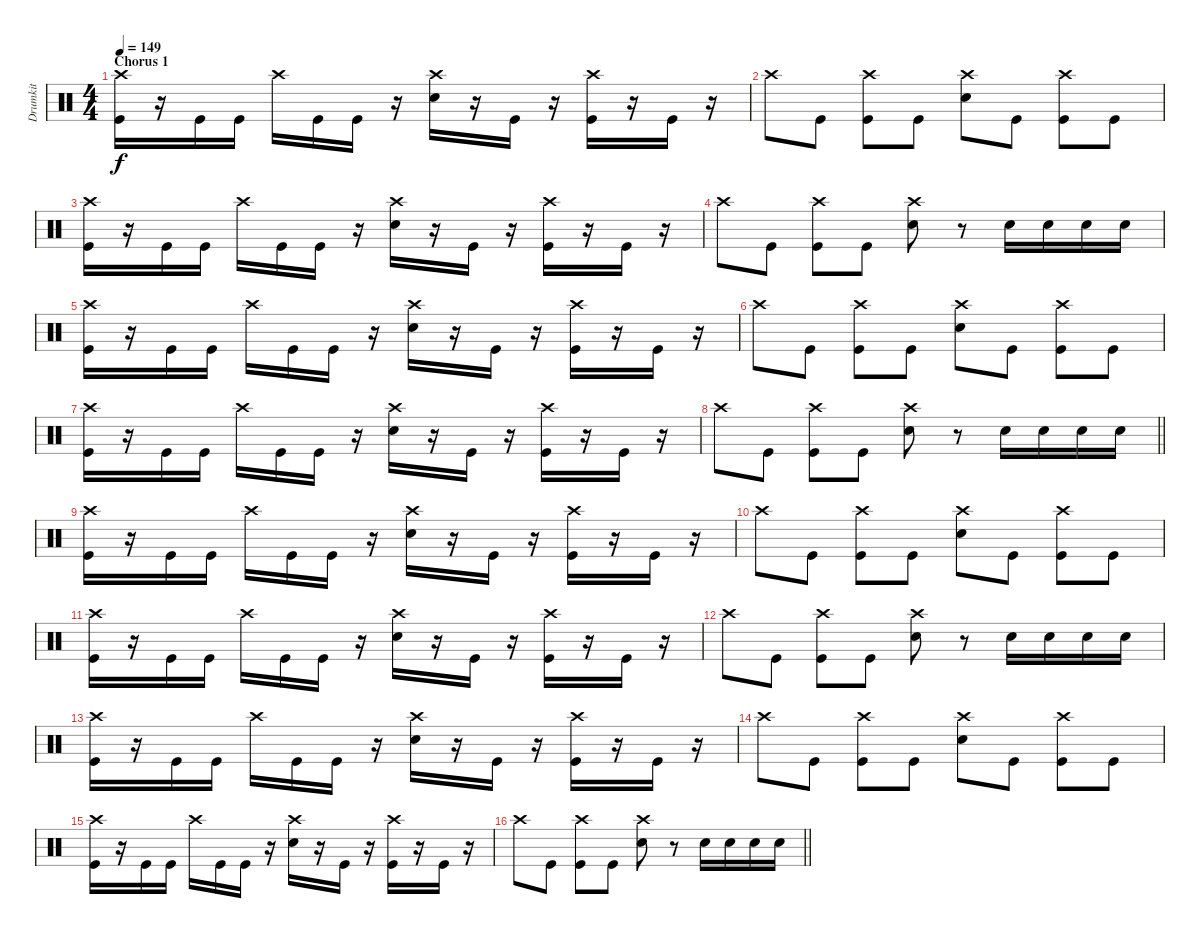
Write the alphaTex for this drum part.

\track ("Drumkit" "Drumkit") {instrument percussion}
\staff {score}
\articulation defaults
\ts (4 4)
\section ("" "Chorus 1")
\tempo 149
\clef neutral
\ks c
("Crash high (hit)" "Kick (hit)").16{dy f} r.16 "Kick (hit)".16 "Kick (hit)".16 "Crash high (hit)".16 "Kick (hit)".16 "Kick (hit)".16 r.16 ("Crash high (hit)" "Snare (hit) 2").16 r.16 "Kick (hit)".16 r.16 ("Crash high (hit)" "Kick (hit)").16 r.16 "Kick (hit)".16 r.16 |
"Crash high (hit)".8 "Kick (hit)".8 ("Crash high (hit)" "Kick (hit)").8 "Kick (hit)".8 ("Crash high (hit)" "Snare (hit) 2").8 "Kick (hit)".8 ("Crash high (hit)" "Kick (hit)").8 "Kick (hit)".8 |
("Crash high (hit)" "Kick (hit)").16 r.16 "Kick (hit)".16 "Kick (hit)".16 "Crash high (hit)".16 "Kick (hit)".16 "Kick (hit)".16 r.16 ("Crash high (hit)" "Snare (hit) 2").16 r.16 "Kick (hit)".16 r.16 ("Crash high (hit)" "Kick (hit)").16 r.16 "Kick (hit)".16 r.16 |
"Crash high (hit)".8 "Kick (hit)".8 ("Crash high (hit)" "Kick (hit)").8 "Kick (hit)".8 ("Crash high (hit)" "Snare (hit) 2").8 r.8 "Snare (hit) 2".16 "Snare (hit) 2".16 "Snare (hit) 2".16 "Snare (hit) 2".16 |
("Crash high (hit)" "Kick (hit)").16 r.16 "Kick (hit)".16 "Kick (hit)".16 "Crash high (hit)".16 "Kick (hit)".16 "Kick (hit)".16 r.16 ("Crash high (hit)" "Snare (hit) 2").16 r.16 "Kick (hit)".16 r.16 ("Crash high (hit)" "Kick (hit)").16 r.16 "Kick (hit)".16 r.16 |
"Crash high (hit)".8 "Kick (hit)".8 ("Crash high (hit)" "Kick (hit)").8 "Kick (hit)".8 ("Crash high (hit)" "Snare (hit) 2").8 "Kick (hit)".8 ("Crash high (hit)" "Kick (hit)").8 "Kick (hit)".8 |
("Crash high (hit)" "Kick (hit)").16 r.16 "Kick (hit)".16 "Kick (hit)".16 "Crash high (hit)".16 "Kick (hit)".16 "Kick (hit)".16 r.16 ("Crash high (hit)" "Snare (hit) 2").16 r.16 "Kick (hit)".16 r.16 ("Crash high (hit)" "Kick (hit)").16 r.16 "Kick (hit)".16 r.16 |
\barLineRight lightlight "Crash high (hit)".8 "Kick (hit)".8
("Crash high (hit)" "Kick (hit)").8 "Kick (hit)".8 ("Crash high (hit)" "Snare (hit) 2").8 r.8 "Snare (hit) 2".16 "Snare (hit) 2".16 "Snare (hit) 2".16 "Snare (hit) 2".16 |
("Crash high (hit)" "Kick (hit)").16 r.16 "Kick (hit)".16 "Kick (hit)".16 "Crash high (hit)".16 "Kick (hit)".16 "Kick (hit)".16 r.16 ("Crash high (hit)" "Snare (hit) 2").16 r.16 "Kick (hit)".16 r.16 ("Crash high (hit)" "Kick (hit)").16 r.16 "Kick (hit)".16 r.16 |
"Crash high (hit)".8 "Kick (hit)".8 ("Crash high (hit)" "Kick (hit)").8 "Kick (hit)".8 ("Crash high (hit)" "Snare (hit) 2").8 "Kick (hit)".8 ("Crash high (hit)" "Kick (hit)").8 "Kick (hit)".8 |
("Crash high (hit)" "Kick (hit)").16 r.16 "Kick (hit)".16 "Kick (hit)".16 "Crash high (hit)".16 "Kick (hit)".16 "Kick (hit)".16 r.16 ("Crash high (hit)" "Snare (hit) 2").16 r.16 "Kick (hit)".16 r.16 ("Crash high (hit)" "Kick (hit)").16 r.16 "Kick (hit)".16 r.16 |
"Crash high (hit)".8 "Kick (hit)".8 ("Crash high (hit)" "Kick (hit)").8 "Kick (hit)".8 ("Crash high (hit)" "Snare (hit) 2").8 r.8 "Snare (hit) 2".16 "Snare (hit) 2".16 "Snare (hit) 2".16 "Snare (hit) 2".16 |
("Crash high (hit)" "Kick (hit)").16 r.16 "Kick (hit)".16 "Kick (hit)".16 "Crash high (hit)".16 "Kick (hit)".16 "Kick (hit)".16 r.16 ("Crash high (hit)" "Snare (hit) 2").16 r.16 "Kick (hit)".16 r.16 ("Crash high (hit)" "Kick (hit)").16 r.16 "Kick (hit)".16 r.16 |
"Crash high (hit)".8 "Kick (hit)".8 ("Crash high (hit)" "Kick (hit)").8 "Kick (hit)".8 ("Crash high (hit)" "Snare (hit) 2").8 "Kick (hit)".8 ("Crash high (hit)" "Kick (hit)").8 "Kick (hit)".8 |
("Crash high (hit)" "Kick (hit)").16 r.16 "Kick (hit)".16 "Kick (hit)".16 "Crash high (hit)".16 "Kick (hit)".16 "Kick (hit)".16 r.16 ("Crash high (hit)" "Snare (hit) 2").16 r.16 "Kick (hit)".16 r.16 ("Crash high (hit)" "Kick (hit)").16 r.16 "Kick (hit)".16 r.16 |
\barLineRight lightlight "Crash high (hit)".8 "Kick (hit)".8
("Crash high (hit)" "Kick (hit)").8 "Kick (hit)".8 ("Crash high (hit)" "Snare (hit) 2").8 r.8 "Snare (hit) 2".16 "Snare (hit) 2".16 "Snare (hit) 2".16 "Snare (hit) 2".16
